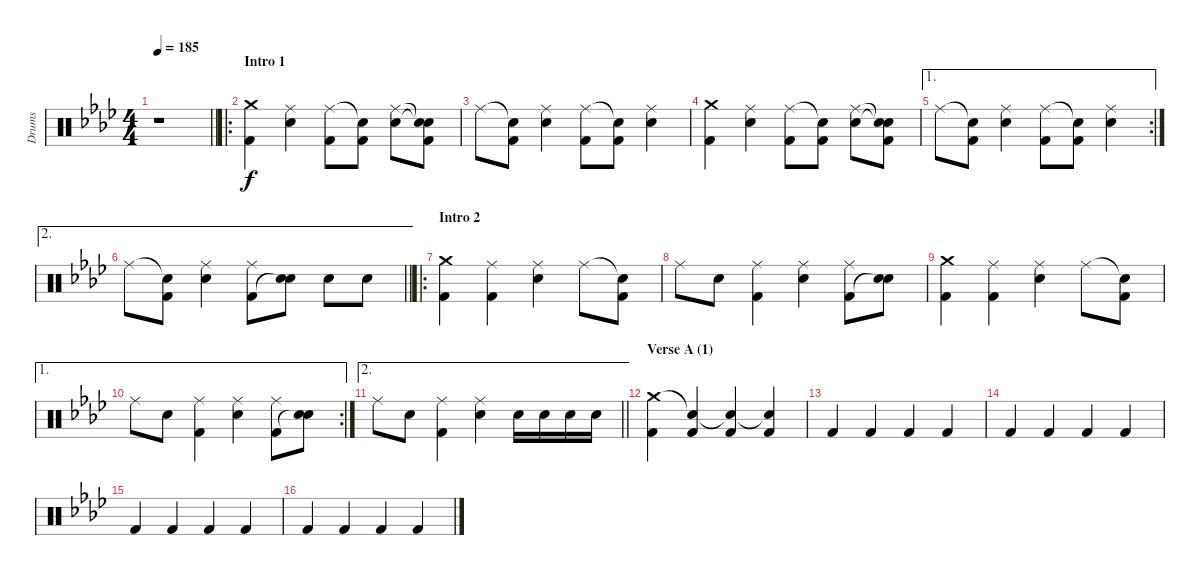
\track ("Drums" "Drums") {instrument percussion}
\staff {score}
\articulation defaults
\ts (4 4)
\tempo 185
\clef neutral
\barLineRight lightlight
\ks fminor
r.1{dy f} |
\ro
\section ("" "Intro 1")
("Crash medium (hit)" "Kick (hit) 2").4 ("Ride (middle)" "Electric Snare (hit)").4 ("Ride (middle)" "Kick (hit) 2").8 ("Snare (hit)"{t} "Kick (hit) 2").8 ("Ride (middle)" "Electric Snare (hit)").8 ("Snare (hit)"{t} "Snare (hit)"{t} "Kick (hit) 2").8 |
"Ride (middle)".8 ("Snare (hit)"{t} "Kick (hit) 2").8 ("Ride (middle)" "Electric Snare (hit)").4 ("Ride (middle)" "Kick (hit) 2").8 ("Snare (hit)"{t} "Kick (hit) 2").8 ("Ride (middle)" "Electric Snare (hit)").4 |
("Crash medium (hit)" "Kick (hit) 2").4 ("Ride (middle)" "Electric Snare (hit)").4 ("Ride (middle)" "Kick (hit) 2").8 ("Snare (hit)"{t} "Kick (hit) 2").8 ("Ride (middle)" "Electric Snare (hit)").8 ("Snare (hit)"{t} "Snare (hit)"{t} "Kick (hit) 2").8 |
\ae 1
\rc 2 "Ride (middle)".8
("Snare (hit)"{t} "Kick (hit) 2").8 ("Ride (middle)" "Electric Snare (hit)").4 ("Ride (middle)" "Kick (hit) 2").8 ("Snare (hit)"{t} "Kick (hit) 2").8 ("Ride (middle)" "Electric Snare (hit)").4 |
\ae 2
\barLineRight lightlight "Ride (middle)".8
("Snare (hit)"{t} "Kick (hit) 2").8 ("Ride (middle)" "Electric Snare (hit)").4 ("Ride (middle)" "Kick (hit) 2").8 ("Electric Snare (hit)" "Snare (hit)"{t}).8 "Electric Snare (hit)".8 "Electric Snare (hit)".8 |
\ro
\section ("" "Intro 2")
("Crash medium (hit)" "Kick (hit) 2").4 ("Ride (middle)" "Kick (hit) 2").4 ("Ride (middle)" "Electric Snare (hit)").4 "Ride (middle)".8 ("Snare (hit)"{t} "Kick (hit) 2").8 |
"Ride (middle)".8 "Electric Snare (hit)".8 ("Ride (middle)" "Kick (hit) 2").4 ("Ride (middle)" "Electric Snare (hit)").4 ("Ride (middle)" "Kick (hit) 2").8 ("Electric Snare (hit)" "Snare (hit)"{t}).8 |
("Crash medium (hit)" "Kick (hit) 2").4 ("Ride (middle)" "Kick (hit) 2").4 ("Ride (middle)" "Electric Snare (hit)").4 "Ride (middle)".8 ("Snare (hit)"{t} "Kick (hit) 2").8 |
\ae 1
\rc 2 "Ride (middle)".8 "Electric Snare (hit)".8
("Ride (middle)" "Kick (hit) 2").4 ("Ride (middle)" "Electric Snare (hit)").4 ("Ride (middle)" "Kick (hit) 2").8 ("Electric Snare (hit)" "Snare (hit)"{t}).8 |
\ae 2
\barLineRight lightlight "Ride (middle)".8 "Electric Snare (hit)".8
("Ride (middle)" "Kick (hit) 2").4 ("Ride (middle)" "Electric Snare (hit)").4 "Electric Snare (hit)".16 "Electric Snare (hit)".16 "Electric Snare (hit)".16 "Electric Snare (hit)".16 |
\section ("" "Verse A (1)")
("Crash medium (hit)" "Kick (hit) 2").4 ("Snare (hit)"{t} "Kick (hit) 2").4 ("Snare (hit)"{t} "Kick (hit) 2").4 ("Snare (hit)"{t} "Kick (hit) 2").4 |
"Kick (hit) 2".4 "Kick (hit) 2".4 "Kick (hit) 2".4 "Kick (hit) 2".4 |
"Kick (hit) 2".4 "Kick (hit) 2".4 "Kick (hit) 2".4 "Kick (hit) 2".4 |
"Kick (hit) 2".4 "Kick (hit) 2".4 "Kick (hit) 2".4 "Kick (hit) 2".4 |
"Kick (hit) 2".4 "Kick (hit) 2".4 "Kick (hit) 2".4 "Kick (hit) 2".4
